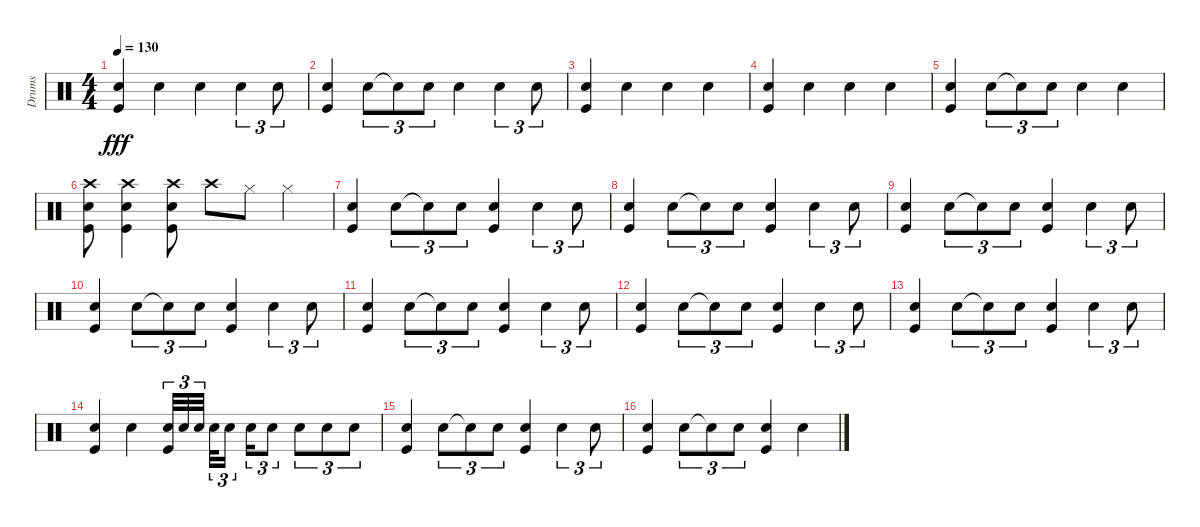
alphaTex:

\track ("Drums" "Drums") {instrument percussion}
\staff {score}
\articulation defaults
\ts (4 4)
\tempo 130
\clef neutral
\ks c
("Kick (hit)" "Snare (hit) 2").4{dy fff} "Snare (hit) 2".4 "Snare (hit) 2".4 "Snare (hit) 2".4{tu (3 2)} "Snare (hit) 2".8{tu (3 2)} |
("Kick (hit)" "Snare (hit) 2").4 "Snare (hit) 2".8{tu (3 2)} "Snare (hit)"{t}.8{tu (3 2)} "Snare (hit) 2".8{tu (3 2)} "Snare (hit) 2".4 "Snare (hit) 2".4{tu (3 2)} "Snare (hit) 2".8{tu (3 2)} |
("Snare (hit) 2" "Kick (hit)").4 "Snare (hit) 2".4 "Snare (hit) 2".4 "Snare (hit) 2".4 |
("Snare (hit) 2" "Kick (hit)").4 "Snare (hit) 2".4 "Snare (hit) 2".4 "Snare (hit) 2".4 |
("Kick (hit)" "Snare (hit) 2").4 "Hand Clap (hit)".8{tu (3 2)} "Snare (hit)"{t}.8{tu (3 2)} "Snare (hit) 2".8{tu (3 2)} "Snare (hit) 2".4 "Snare (hit) 2".4 |
("Kick (hit)" "Crash high (hit)" "Hand Clap (hit)").8 ("Crash high (hit)" "Hand Clap (hit)" "Kick (hit)").4 ("Crash high (hit)" "Hand Clap (hit)" "Kick (hit)").8 "Crash high (hit)".8 "Hi-Hat (closed)".8 "Hi-Hat (closed)".4 |
("Kick (hit)" "Snare (hit) 2").4 "Hand Clap (hit)".8{tu (3 2)} "Snare (hit)"{t}.8{tu (3 2)} "Snare (hit) 2".8{tu (3 2)} ("Kick (hit)" "Snare (hit) 2").4 "Hand Clap (hit)".4{tu (3 2)} "Snare (hit) 2".8{tu (3 2)} |
("Kick (hit)" "Snare (hit) 2").4 "Hand Clap (hit)".8{tu (3 2)} "Snare (hit)"{t}.8{tu (3 2)} "Snare (hit) 2".8{tu (3 2)} ("Snare (hit) 2" "Kick (hit)").4 "Hand Clap (hit)".4{tu (3 2)} "Snare (hit) 2".8{tu (3 2)} |
("Snare (hit) 2" "Kick (hit)").4 "Hand Clap (hit)".8{tu (3 2)} "Snare (hit)"{t}.8{tu (3 2)} "Snare (hit) 2".8{tu (3 2)} ("Kick (hit)" "Snare (hit) 2").4 "Hand Clap (hit)".4{tu (3 2)} "Snare (hit) 2".8{tu (3 2)} |
("Snare (hit) 2" "Kick (hit)").4 "Hand Clap (hit)".8{tu (3 2)} "Snare (hit)"{t}.8{tu (3 2)} "Snare (hit) 2".8{tu (3 2)} ("Snare (hit) 2" "Kick (hit)").4 "Hand Clap (hit)".4{tu (3 2)} "Snare (hit) 2".8{tu (3 2)} |
("Kick (hit)" "Snare (hit) 2").4 "Hand Clap (hit)".8{tu (3 2)} "Snare (hit)"{t}.8{tu (3 2)} "Snare (hit) 2".8{tu (3 2)} ("Snare (hit) 2" "Kick (hit)").4 "Hand Clap (hit)".4{tu (3 2)} "Snare (hit) 2".8{tu (3 2)} |
("Kick (hit)" "Snare (hit) 2").4 "Hand Clap (hit)".8{tu (3 2)} "Snare (hit)"{t}.8{tu (3 2)} "Snare (hit) 2".8{tu (3 2)} ("Snare (hit) 2" "Kick (hit)").4 "Hand Clap (hit)".4{tu (3 2)} "Snare (hit) 2".8{tu (3 2)} |
("Kick (hit)" "Snare (hit) 2").4 "Hand Clap (hit)".8{tu (3 2)} "Snare (hit)"{t}.8{tu (3 2)} "Snare (hit) 2".8{tu (3 2)} ("Snare (hit) 2" "Kick (hit)").4 "Hand Clap (hit)".4{tu (3 2)} "Snare (hit) 2".8{tu (3 2)} |
("Kick (hit)" "Snare (hit) 2").4 "Snare (hit) 2".4 ("Snare (hit) 2" "Kick (hit)").32{tu (3 2)} "Snare (hit) 2".32{tu (3 2)} "Snare (hit) 2".32{tu (3 2) beam splitsecondary} "Snare (hit) 2".32{tu (3 2)} "Snare (hit) 2".16{tu (3 2) beam splitsecondary} "Snare (hit) 2".16{tu (3 2)} "Hand Clap (hit)".8{tu (3 2)} "Snare (hit) 2".8{tu (3 2)} "Snare (hit) 2".8{tu (3 2)} "Hand Clap (hit)".8{tu (3 2)} |
("Snare (hit) 2" "Kick (hit)").4 "Hand Clap (hit)".8{tu (3 2)} "Snare (hit)"{t}.8{tu (3 2)} "Snare (hit) 2".8{tu (3 2)} ("Kick (hit)" "Snare (hit) 2").4 "Hand Clap (hit)".4{tu (3 2)} "Snare (hit) 2".8{tu (3 2)} |
("Kick (hit)" "Snare (hit) 2").4 "Hand Clap (hit)".8{tu (3 2)} "Snare (hit)"{t}.8{tu (3 2)} "Snare (hit) 2".8{tu (3 2)} ("Kick (hit)" "Hand Clap (hit)").4 "Hand Clap (hit)".4
